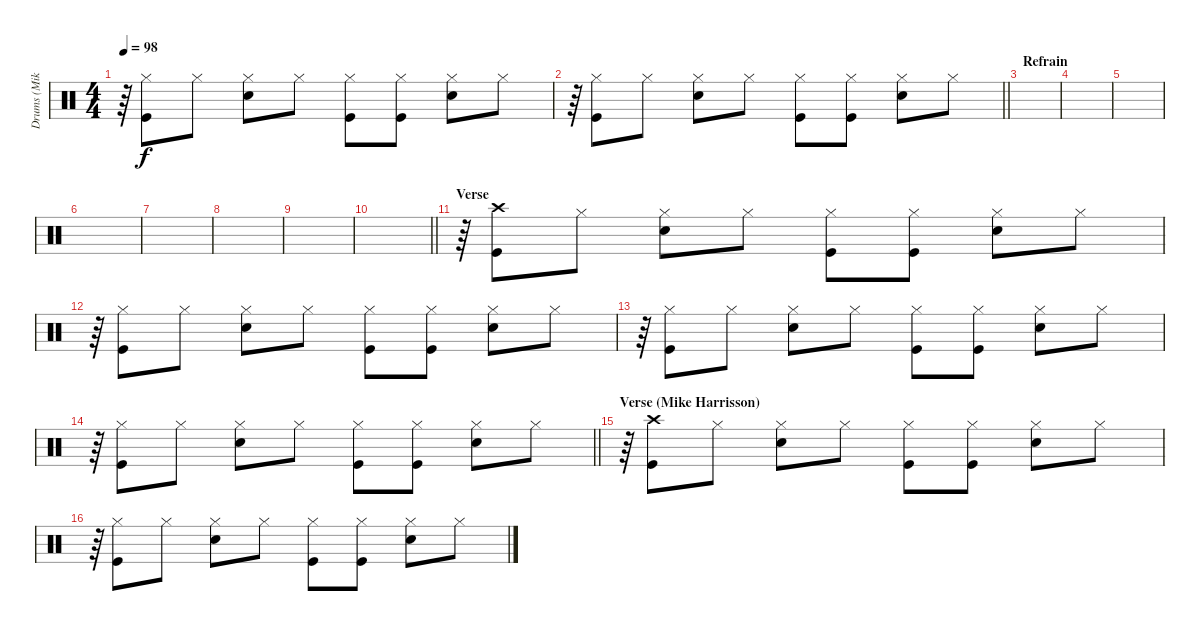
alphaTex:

\track ("Drums (Mike Kellie)" "Drums (Mik") {instrument percussion}
\staff {score}
\articulation defaults
\ts (4 4)
\tempo 98
\clef neutral
\ks c
r.64{dy f} ("Hi-Hat (closed)" "Kick (hit)").8 "Hi-Hat (closed)".8 ("Hi-Hat (closed)" "Electric Snare (hit)").8 "Hi-Hat (closed)".8 ("Hi-Hat (closed)" "Kick (hit)").8 ("Hi-Hat (closed)" "Kick (hit)").8 ("Hi-Hat (closed)" "Electric Snare (hit)").8 "Hi-Hat (closed)".8 |
\barLineRight lightlight
r.64 ("Hi-Hat (closed)" "Kick (hit)").8 "Hi-Hat (closed)".8 ("Hi-Hat (closed)" "Electric Snare (hit)").8 "Hi-Hat (closed)".8 ("Hi-Hat (closed)" "Kick (hit)").8 ("Hi-Hat (closed)" "Kick (hit)").8 ("Hi-Hat (closed)" "Electric Snare (hit)").8 "Hi-Hat (closed)".8 |
\section ("" "Refrain")
|
|
|
|
|
|
|
\barLineRight lightlight
|
\section ("" "Verse")
r.64 ("Crash high (hit)" "Kick (hit)").8 "Hi-Hat (closed)".8 ("Hi-Hat (closed)" "Electric Snare (hit)").8 "Hi-Hat (closed)".8 ("Hi-Hat (closed)" "Kick (hit)").8 ("Hi-Hat (closed)" "Kick (hit)").8 ("Hi-Hat (closed)" "Electric Snare (hit)").8 "Hi-Hat (closed)".8 |
r.64 ("Hi-Hat (closed)" "Kick (hit)").8 "Hi-Hat (closed)".8 ("Hi-Hat (closed)" "Electric Snare (hit)").8 "Hi-Hat (closed)".8 ("Hi-Hat (closed)" "Kick (hit)").8 ("Hi-Hat (closed)" "Kick (hit)").8 ("Hi-Hat (closed)" "Electric Snare (hit)").8 "Hi-Hat (closed)".8 |
r.64 ("Hi-Hat (closed)" "Kick (hit)").8 "Hi-Hat (closed)".8 ("Hi-Hat (closed)" "Electric Snare (hit)").8 "Hi-Hat (closed)".8 ("Hi-Hat (closed)" "Kick (hit)").8 ("Hi-Hat (closed)" "Kick (hit)").8 ("Hi-Hat (closed)" "Electric Snare (hit)").8 "Hi-Hat (closed)".8 |
\barLineRight lightlight
r.64 ("Hi-Hat (closed)" "Kick (hit)").8 "Hi-Hat (closed)".8 ("Hi-Hat (closed)" "Electric Snare (hit)").8 "Hi-Hat (closed)".8 ("Hi-Hat (closed)" "Kick (hit)").8 ("Hi-Hat (closed)" "Kick (hit)").8 ("Hi-Hat (closed)" "Electric Snare (hit)").8 "Hi-Hat (closed)".8 |
\section ("" "Verse (Mike Harrisson)")
r.64 ("Crash high (hit)" "Kick (hit)").8 "Hi-Hat (closed)".8 ("Hi-Hat (closed)" "Electric Snare (hit)").8 "Hi-Hat (closed)".8 ("Hi-Hat (closed)" "Kick (hit)").8 ("Hi-Hat (closed)" "Kick (hit)").8 ("Hi-Hat (closed)" "Electric Snare (hit)").8 "Hi-Hat (closed)".8 |
r.64 ("Hi-Hat (closed)" "Kick (hit)").8 "Hi-Hat (closed)".8 ("Hi-Hat (closed)" "Electric Snare (hit)").8 "Hi-Hat (closed)".8 ("Hi-Hat (closed)" "Kick (hit)").8 ("Hi-Hat (closed)" "Kick (hit)").8 ("Hi-Hat (closed)" "Electric Snare (hit)").8 "Hi-Hat (closed)".8
